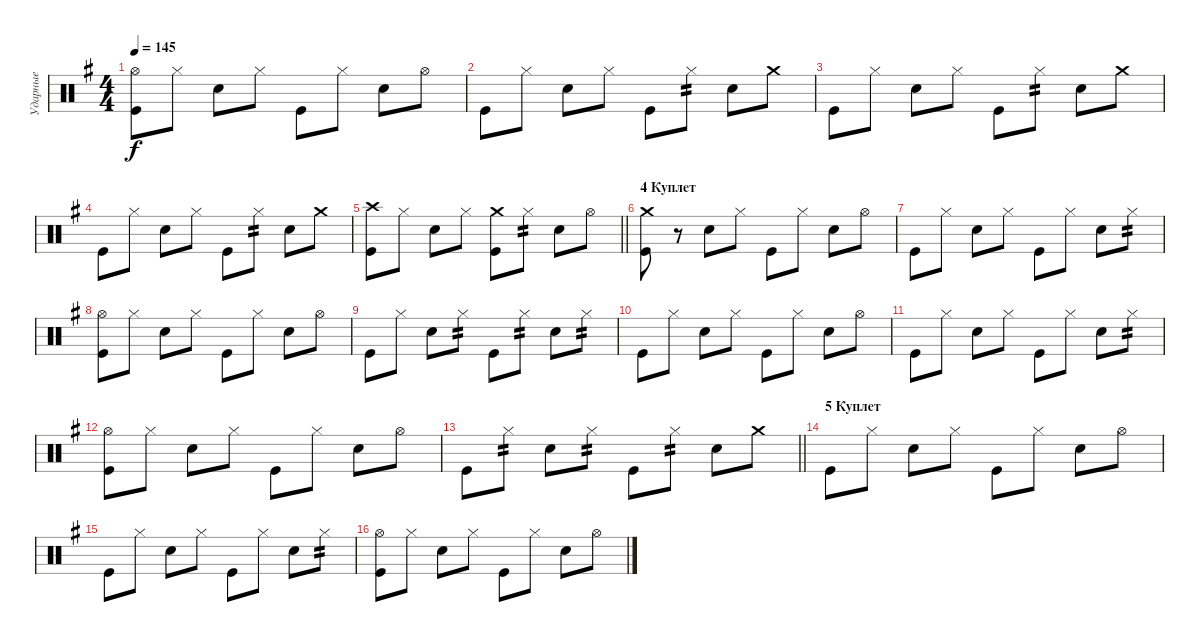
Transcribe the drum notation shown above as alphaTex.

\track ("Ударные" "Ударные") {instrument percussion}
\staff {score}
\articulation defaults
\ts (4 4)
\tempo 145
\clef neutral
\ks eminor
("Hi-Hat (open)" "Kick (hit)").8{dy f} "Hi-Hat (closed)".8 "Snare (hit) 2".8 "Hi-Hat (closed)".8 "Kick (hit)".8 "Hi-Hat (closed)".8 "Snare (hit) 2".8 "Hi-Hat (open)".8 |
"Kick (hit)".8 "Hi-Hat (closed)".8 "Snare (hit) 2".8 "Hi-Hat (closed)".8 "Kick (hit)".8 "Hi-Hat (closed)".8{tp 2} "Snare (hit) 2".8 "Crash medium (hit)".8 |
"Kick (hit)".8 "Hi-Hat (closed)".8 "Snare (hit) 2".8 "Hi-Hat (closed)".8 "Kick (hit)".8 "Hi-Hat (closed)".8{tp 2} "Snare (hit) 2".8 "Crash medium (hit)".8 |
"Kick (hit)".8 "Hi-Hat (closed)".8 "Snare (hit) 2".8 "Hi-Hat (closed)".8 "Kick (hit)".8 "Hi-Hat (closed)".8{tp 2} "Snare (hit) 2".8 "Crash medium (hit)".8 |
\barLineRight lightlight
("Crash high (hit)" "Kick (hit)").8 "Hi-Hat (closed)".8 "Snare (hit) 2".8 "Hi-Hat (closed)".8 ("Crash medium (hit)" "Kick (hit)").8 "Hi-Hat (closed)".8{tp 2} "Snare (hit) 2".8 "Hi-Hat (open)".8 |
\section ("" "4 Куплет")
("Crash medium (hit)" "Kick (hit)").8 r.8 "Snare (hit) 2".8 "Hi-Hat (closed)".8 "Kick (hit)".8 "Hi-Hat (closed)".8 "Snare (hit) 2".8 "Hi-Hat (open)".8 |
"Kick (hit)".8 "Hi-Hat (closed)".8 "Snare (hit) 2".8 "Hi-Hat (closed)".8 "Kick (hit)".8 "Hi-Hat (closed)".8 "Snare (hit) 2".8 "Hi-Hat (closed)".8{tp 2} |
("Hi-Hat (open)" "Kick (hit)").8 "Hi-Hat (closed)".8 "Snare (hit) 2".8 "Hi-Hat (closed)".8 "Kick (hit)".8 "Hi-Hat (closed)".8 "Snare (hit) 2".8 "Hi-Hat (open)".8 |
"Kick (hit)".8 "Hi-Hat (closed)".8 "Snare (hit) 2".8 "Hi-Hat (closed)".8{tp 2} "Kick (hit)".8 "Hi-Hat (closed)".8{tp 2} "Snare (hit) 2".8 "Hi-Hat (closed)".8{tp 2} |
"Kick (hit)".8 "Hi-Hat (closed)".8 "Snare (hit) 2".8 "Hi-Hat (closed)".8 "Kick (hit)".8 "Hi-Hat (closed)".8 "Snare (hit) 2".8 "Hi-Hat (open)".8 |
"Kick (hit)".8 "Hi-Hat (closed)".8 "Snare (hit) 2".8 "Hi-Hat (closed)".8 "Kick (hit)".8 "Hi-Hat (closed)".8 "Snare (hit) 2".8 "Hi-Hat (closed)".8{tp 2} |
("Hi-Hat (open)" "Kick (hit)").8 "Hi-Hat (closed)".8 "Snare (hit) 2".8 "Hi-Hat (closed)".8 "Kick (hit)".8 "Hi-Hat (closed)".8 "Snare (hit) 2".8 "Hi-Hat (open)".8 |
\barLineRight lightlight "Kick (hit)".8 "Hi-Hat (closed)".8{tp 2} "Snare (hit) 2".8 "Hi-Hat (closed)".8{tp 2} "Kick (hit)".8 "Hi-Hat (closed)".8{tp 2} "Snare (hit) 2".8 "Crash medium (hit)".8
|
\section ("" "5 Куплет")
"Kick (hit)".8 "Hi-Hat (closed)".8 "Snare (hit) 2".8 "Hi-Hat (closed)".8 "Kick (hit)".8 "Hi-Hat (closed)".8 "Snare (hit) 2".8 "Hi-Hat (open)".8 |
"Kick (hit)".8 "Hi-Hat (closed)".8 "Snare (hit) 2".8 "Hi-Hat (closed)".8 "Kick (hit)".8 "Hi-Hat (closed)".8 "Snare (hit) 2".8 "Hi-Hat (closed)".8{tp 2} |
("Hi-Hat (open)" "Kick (hit)").8 "Hi-Hat (closed)".8 "Snare (hit) 2".8 "Hi-Hat (closed)".8 "Kick (hit)".8 "Hi-Hat (closed)".8 "Snare (hit) 2".8 "Hi-Hat (open)".8
